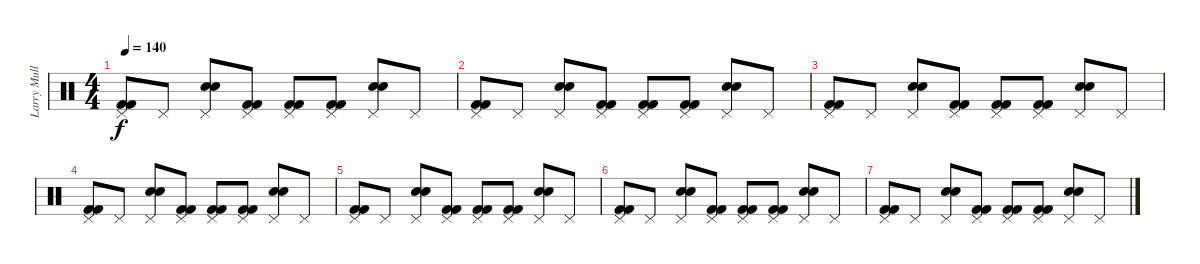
\track ("Larry Mullen JR." "Larry Mull") {instrument percussion}
\staff {score}
\articulation defaults
\ts (4 4)
\tempo 140
\clef neutral
\ks c
("Kick (hit) 2" "Kick (hit) 2" "Pedal Hi-Hat (hit)").8{dy f} "Pedal Hi-Hat (hit)".8 ("Electric Snare (hit)" "Snare (hit) 2" "Pedal Hi-Hat (hit)").8 ("Kick (hit) 2" "Kick (hit) 2" "Pedal Hi-Hat (hit)").8 ("Kick (hit) 2" "Kick (hit) 2" "Pedal Hi-Hat (hit)").8 ("Kick (hit) 2" "Kick (hit) 2" "Pedal Hi-Hat (hit)").8 ("Snare (hit) 2" "Electric Snare (hit)" "Pedal Hi-Hat (hit)").8 "Pedal Hi-Hat (hit)".8 |
("Kick (hit) 2" "Kick (hit) 2" "Pedal Hi-Hat (hit)").8 "Pedal Hi-Hat (hit)".8 ("Electric Snare (hit)" "Snare (hit) 2" "Pedal Hi-Hat (hit)").8 ("Kick (hit) 2" "Kick (hit) 2" "Pedal Hi-Hat (hit)").8 ("Kick (hit) 2" "Kick (hit) 2" "Pedal Hi-Hat (hit)").8 ("Kick (hit) 2" "Kick (hit) 2" "Pedal Hi-Hat (hit)").8 ("Snare (hit) 2" "Electric Snare (hit)" "Pedal Hi-Hat (hit)").8 "Pedal Hi-Hat (hit)".8 |
("Kick (hit) 2" "Kick (hit) 2" "Pedal Hi-Hat (hit)").8 "Pedal Hi-Hat (hit)".8 ("Electric Snare (hit)" "Snare (hit) 2" "Pedal Hi-Hat (hit)").8 ("Kick (hit) 2" "Kick (hit) 2" "Pedal Hi-Hat (hit)").8 ("Kick (hit) 2" "Kick (hit) 2" "Pedal Hi-Hat (hit)").8 ("Kick (hit) 2" "Kick (hit) 2" "Pedal Hi-Hat (hit)").8 ("Snare (hit) 2" "Electric Snare (hit)" "Pedal Hi-Hat (hit)").8 "Pedal Hi-Hat (hit)".8 |
("Kick (hit) 2" "Kick (hit) 2" "Pedal Hi-Hat (hit)").8 "Pedal Hi-Hat (hit)".8 ("Electric Snare (hit)" "Snare (hit) 2" "Pedal Hi-Hat (hit)").8 ("Kick (hit) 2" "Kick (hit) 2" "Pedal Hi-Hat (hit)").8 ("Kick (hit) 2" "Kick (hit) 2" "Pedal Hi-Hat (hit)").8 ("Kick (hit) 2" "Kick (hit) 2" "Pedal Hi-Hat (hit)").8 ("Snare (hit) 2" "Electric Snare (hit)" "Pedal Hi-Hat (hit)").8 "Pedal Hi-Hat (hit)".8 |
("Kick (hit) 2" "Kick (hit) 2" "Pedal Hi-Hat (hit)").8 "Pedal Hi-Hat (hit)".8 ("Electric Snare (hit)" "Snare (hit) 2" "Pedal Hi-Hat (hit)").8 ("Kick (hit) 2" "Kick (hit) 2" "Pedal Hi-Hat (hit)").8 ("Kick (hit) 2" "Kick (hit) 2" "Pedal Hi-Hat (hit)").8 ("Kick (hit) 2" "Kick (hit) 2" "Pedal Hi-Hat (hit)").8 ("Snare (hit) 2" "Electric Snare (hit)" "Pedal Hi-Hat (hit)").8 "Pedal Hi-Hat (hit)".8 |
("Kick (hit) 2" "Kick (hit) 2" "Pedal Hi-Hat (hit)").8 "Pedal Hi-Hat (hit)".8 ("Electric Snare (hit)" "Snare (hit) 2" "Pedal Hi-Hat (hit)").8 ("Kick (hit) 2" "Kick (hit) 2" "Pedal Hi-Hat (hit)").8 ("Kick (hit) 2" "Kick (hit) 2" "Pedal Hi-Hat (hit)").8 ("Kick (hit) 2" "Kick (hit) 2" "Pedal Hi-Hat (hit)").8 ("Snare (hit) 2" "Electric Snare (hit)" "Pedal Hi-Hat (hit)").8 "Pedal Hi-Hat (hit)".8 |
("Kick (hit) 2" "Kick (hit) 2" "Pedal Hi-Hat (hit)").8 "Pedal Hi-Hat (hit)".8 ("Electric Snare (hit)" "Snare (hit) 2" "Pedal Hi-Hat (hit)").8 ("Kick (hit) 2" "Kick (hit) 2" "Pedal Hi-Hat (hit)").8 ("Kick (hit) 2" "Kick (hit) 2" "Pedal Hi-Hat (hit)").8 ("Kick (hit) 2" "Kick (hit) 2" "Pedal Hi-Hat (hit)").8 ("Snare (hit) 2" "Electric Snare (hit)" "Pedal Hi-Hat (hit)").8 "Pedal Hi-Hat (hit)".8
